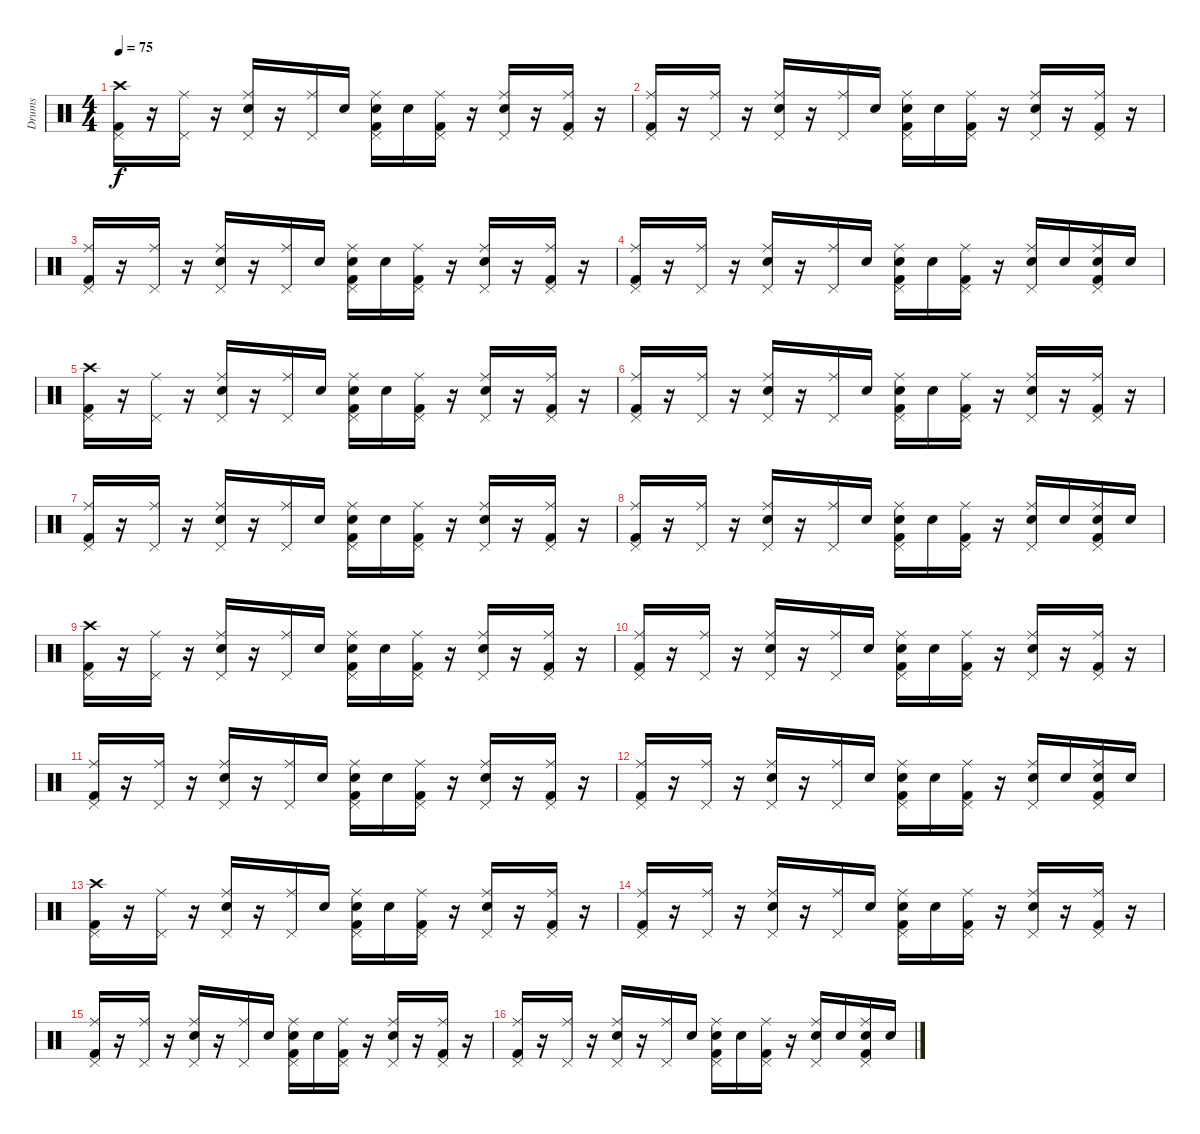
\track ("Drums" "Drums") {instrument percussion}
\staff {score}
\articulation defaults
\ts (4 4)
\tempo 75
\clef neutral
\ks c
("Crash high (hit)" "Kick (hit) 2" "Pedal Hi-Hat (hit)").16{dy f} r.16 ("Ride (middle)" "Pedal Hi-Hat (hit)").16 r.16 ("Ride (middle)" "Electric Snare (hit)" "Pedal Hi-Hat (hit)").16 r.16 ("Ride (middle)" "Pedal Hi-Hat (hit)").16 "Snare (hit) 2".16 ("Ride (middle)" "Electric Snare (hit)" "Kick (hit) 2" "Pedal Hi-Hat (hit)").16 "Electric Snare (hit)".16 ("Ride (middle)" "Kick (hit) 2" "Pedal Hi-Hat (hit)").16 r.16 ("Ride (middle)" "Electric Snare (hit)" "Pedal Hi-Hat (hit)").16 r.16 ("Ride (middle)" "Kick (hit) 2" "Pedal Hi-Hat (hit)").16 r.16 |
("Ride (middle)" "Kick (hit) 2" "Pedal Hi-Hat (hit)").16 r.16 ("Ride (middle)" "Pedal Hi-Hat (hit)").16 r.16 ("Ride (middle)" "Electric Snare (hit)" "Pedal Hi-Hat (hit)").16 r.16 ("Ride (middle)" "Pedal Hi-Hat (hit)").16 "Snare (hit) 2".16 ("Ride (middle)" "Electric Snare (hit)" "Kick (hit) 2" "Pedal Hi-Hat (hit)").16 "Electric Snare (hit)".16 ("Ride (middle)" "Kick (hit) 2" "Pedal Hi-Hat (hit)").16 r.16 ("Ride (middle)" "Electric Snare (hit)" "Pedal Hi-Hat (hit)").16 r.16 ("Ride (middle)" "Kick (hit) 2" "Pedal Hi-Hat (hit)").16 r.16 |
("Ride (middle)" "Kick (hit) 2" "Pedal Hi-Hat (hit)").16 r.16 ("Ride (middle)" "Pedal Hi-Hat (hit)").16 r.16 ("Ride (middle)" "Electric Snare (hit)" "Pedal Hi-Hat (hit)").16 r.16 ("Ride (middle)" "Pedal Hi-Hat (hit)").16 "Snare (hit) 2".16 ("Ride (middle)" "Electric Snare (hit)" "Kick (hit) 2" "Pedal Hi-Hat (hit)").16 "Electric Snare (hit)".16 ("Ride (middle)" "Kick (hit) 2" "Pedal Hi-Hat (hit)").16 r.16 ("Ride (middle)" "Electric Snare (hit)" "Pedal Hi-Hat (hit)").16 r.16 ("Ride (middle)" "Kick (hit) 2" "Pedal Hi-Hat (hit)").16 r.16 |
("Ride (middle)" "Kick (hit) 2" "Pedal Hi-Hat (hit)").16 r.16 ("Ride (middle)" "Pedal Hi-Hat (hit)").16 r.16 ("Ride (middle)" "Electric Snare (hit)" "Pedal Hi-Hat (hit)").16 r.16 ("Ride (middle)" "Pedal Hi-Hat (hit)").16 "Snare (hit) 2".16 ("Ride (middle)" "Electric Snare (hit)" "Kick (hit) 2" "Pedal Hi-Hat (hit)").16 "Electric Snare (hit)".16 ("Ride (middle)" "Kick (hit) 2" "Pedal Hi-Hat (hit)").16 r.16 ("Ride (middle)" "Electric Snare (hit)" "Pedal Hi-Hat (hit)").16 "Electric Snare (hit)".16 ("Ride (middle)" "Electric Snare (hit)" "Kick (hit) 2" "Pedal Hi-Hat (hit)").16 "Electric Snare (hit)".16 |
("Crash high (hit)" "Kick (hit) 2" "Pedal Hi-Hat (hit)").16 r.16 ("Ride (middle)" "Pedal Hi-Hat (hit)").16 r.16 ("Ride (middle)" "Electric Snare (hit)" "Pedal Hi-Hat (hit)").16 r.16 ("Ride (middle)" "Pedal Hi-Hat (hit)").16 "Snare (hit) 2".16 ("Ride (middle)" "Electric Snare (hit)" "Kick (hit) 2" "Pedal Hi-Hat (hit)").16 "Electric Snare (hit)".16 ("Ride (middle)" "Kick (hit) 2" "Pedal Hi-Hat (hit)").16 r.16 ("Ride (middle)" "Electric Snare (hit)" "Pedal Hi-Hat (hit)").16 r.16 ("Ride (middle)" "Kick (hit) 2" "Pedal Hi-Hat (hit)").16 r.16 |
("Ride (middle)" "Kick (hit) 2" "Pedal Hi-Hat (hit)").16 r.16 ("Ride (middle)" "Pedal Hi-Hat (hit)").16 r.16 ("Ride (middle)" "Electric Snare (hit)" "Pedal Hi-Hat (hit)").16 r.16 ("Ride (middle)" "Pedal Hi-Hat (hit)").16 "Snare (hit) 2".16 ("Ride (middle)" "Electric Snare (hit)" "Kick (hit) 2" "Pedal Hi-Hat (hit)").16 "Electric Snare (hit)".16 ("Ride (middle)" "Kick (hit) 2" "Pedal Hi-Hat (hit)").16 r.16 ("Ride (middle)" "Electric Snare (hit)" "Pedal Hi-Hat (hit)").16 r.16 ("Ride (middle)" "Kick (hit) 2" "Pedal Hi-Hat (hit)").16 r.16 |
("Ride (middle)" "Kick (hit) 2" "Pedal Hi-Hat (hit)").16 r.16 ("Ride (middle)" "Pedal Hi-Hat (hit)").16 r.16 ("Ride (middle)" "Electric Snare (hit)" "Pedal Hi-Hat (hit)").16 r.16 ("Ride (middle)" "Pedal Hi-Hat (hit)").16 "Snare (hit) 2".16 ("Ride (middle)" "Electric Snare (hit)" "Kick (hit) 2" "Pedal Hi-Hat (hit)").16 "Electric Snare (hit)".16 ("Ride (middle)" "Kick (hit) 2" "Pedal Hi-Hat (hit)").16 r.16 ("Ride (middle)" "Electric Snare (hit)" "Pedal Hi-Hat (hit)").16 r.16 ("Ride (middle)" "Kick (hit) 2" "Pedal Hi-Hat (hit)").16 r.16 |
("Ride (middle)" "Kick (hit) 2" "Pedal Hi-Hat (hit)").16 r.16 ("Ride (middle)" "Pedal Hi-Hat (hit)").16 r.16 ("Ride (middle)" "Electric Snare (hit)" "Pedal Hi-Hat (hit)").16 r.16 ("Ride (middle)" "Pedal Hi-Hat (hit)").16 "Snare (hit) 2".16 ("Ride (middle)" "Electric Snare (hit)" "Kick (hit) 2" "Pedal Hi-Hat (hit)").16 "Electric Snare (hit)".16 ("Ride (middle)" "Kick (hit) 2" "Pedal Hi-Hat (hit)").16 r.16 ("Ride (middle)" "Electric Snare (hit)" "Pedal Hi-Hat (hit)").16 "Electric Snare (hit)".16 ("Ride (middle)" "Electric Snare (hit)" "Kick (hit) 2" "Pedal Hi-Hat (hit)").16 "Electric Snare (hit)".16 |
("Crash high (hit)" "Kick (hit) 2" "Pedal Hi-Hat (hit)").16 r.16 ("Ride (middle)" "Pedal Hi-Hat (hit)").16 r.16 ("Ride (middle)" "Electric Snare (hit)" "Pedal Hi-Hat (hit)").16 r.16 ("Ride (middle)" "Pedal Hi-Hat (hit)").16 "Snare (hit) 2".16 ("Ride (middle)" "Electric Snare (hit)" "Kick (hit) 2" "Pedal Hi-Hat (hit)").16 "Electric Snare (hit)".16 ("Ride (middle)" "Kick (hit) 2" "Pedal Hi-Hat (hit)").16 r.16 ("Ride (middle)" "Electric Snare (hit)" "Pedal Hi-Hat (hit)").16 r.16 ("Ride (middle)" "Kick (hit) 2" "Pedal Hi-Hat (hit)").16 r.16 |
("Ride (middle)" "Kick (hit) 2" "Pedal Hi-Hat (hit)").16 r.16 ("Ride (middle)" "Pedal Hi-Hat (hit)").16 r.16 ("Ride (middle)" "Electric Snare (hit)" "Pedal Hi-Hat (hit)").16 r.16 ("Ride (middle)" "Pedal Hi-Hat (hit)").16 "Snare (hit) 2".16 ("Ride (middle)" "Electric Snare (hit)" "Kick (hit) 2" "Pedal Hi-Hat (hit)").16 "Electric Snare (hit)".16 ("Ride (middle)" "Kick (hit) 2" "Pedal Hi-Hat (hit)").16 r.16 ("Ride (middle)" "Electric Snare (hit)" "Pedal Hi-Hat (hit)").16 r.16 ("Ride (middle)" "Kick (hit) 2" "Pedal Hi-Hat (hit)").16 r.16 |
("Ride (middle)" "Kick (hit) 2" "Pedal Hi-Hat (hit)").16 r.16 ("Ride (middle)" "Pedal Hi-Hat (hit)").16 r.16 ("Ride (middle)" "Electric Snare (hit)" "Pedal Hi-Hat (hit)").16 r.16 ("Ride (middle)" "Pedal Hi-Hat (hit)").16 "Snare (hit) 2".16 ("Ride (middle)" "Electric Snare (hit)" "Kick (hit) 2" "Pedal Hi-Hat (hit)").16 "Electric Snare (hit)".16 ("Ride (middle)" "Kick (hit) 2" "Pedal Hi-Hat (hit)").16 r.16 ("Ride (middle)" "Electric Snare (hit)" "Pedal Hi-Hat (hit)").16 r.16 ("Ride (middle)" "Kick (hit) 2" "Pedal Hi-Hat (hit)").16 r.16 |
("Ride (middle)" "Kick (hit) 2" "Pedal Hi-Hat (hit)").16 r.16 ("Ride (middle)" "Pedal Hi-Hat (hit)").16 r.16 ("Ride (middle)" "Electric Snare (hit)" "Pedal Hi-Hat (hit)").16 r.16 ("Ride (middle)" "Pedal Hi-Hat (hit)").16 "Snare (hit) 2".16 ("Ride (middle)" "Electric Snare (hit)" "Kick (hit) 2" "Pedal Hi-Hat (hit)").16 "Electric Snare (hit)".16 ("Ride (middle)" "Kick (hit) 2" "Pedal Hi-Hat (hit)").16 r.16 ("Ride (middle)" "Electric Snare (hit)" "Pedal Hi-Hat (hit)").16 "Electric Snare (hit)".16 ("Ride (middle)" "Electric Snare (hit)" "Kick (hit) 2" "Pedal Hi-Hat (hit)").16 "Electric Snare (hit)".16 |
("Crash high (hit)" "Kick (hit) 2" "Pedal Hi-Hat (hit)").16 r.16 ("Ride (middle)" "Pedal Hi-Hat (hit)").16 r.16 ("Ride (middle)" "Electric Snare (hit)" "Pedal Hi-Hat (hit)").16 r.16 ("Ride (middle)" "Pedal Hi-Hat (hit)").16 "Snare (hit) 2".16 ("Ride (middle)" "Electric Snare (hit)" "Kick (hit) 2" "Pedal Hi-Hat (hit)").16 "Electric Snare (hit)".16 ("Ride (middle)" "Kick (hit) 2" "Pedal Hi-Hat (hit)").16 r.16 ("Ride (middle)" "Electric Snare (hit)" "Pedal Hi-Hat (hit)").16 r.16 ("Ride (middle)" "Kick (hit) 2" "Pedal Hi-Hat (hit)").16 r.16 |
("Ride (middle)" "Kick (hit) 2" "Pedal Hi-Hat (hit)").16 r.16 ("Ride (middle)" "Pedal Hi-Hat (hit)").16 r.16 ("Ride (middle)" "Electric Snare (hit)" "Pedal Hi-Hat (hit)").16 r.16 ("Ride (middle)" "Pedal Hi-Hat (hit)").16 "Snare (hit) 2".16 ("Ride (middle)" "Electric Snare (hit)" "Kick (hit) 2" "Pedal Hi-Hat (hit)").16 "Electric Snare (hit)".16 ("Ride (middle)" "Kick (hit) 2" "Pedal Hi-Hat (hit)").16 r.16 ("Ride (middle)" "Electric Snare (hit)" "Pedal Hi-Hat (hit)").16 r.16 ("Ride (middle)" "Kick (hit) 2" "Pedal Hi-Hat (hit)").16 r.16 |
("Ride (middle)" "Kick (hit) 2" "Pedal Hi-Hat (hit)").16 r.16 ("Ride (middle)" "Pedal Hi-Hat (hit)").16 r.16 ("Ride (middle)" "Electric Snare (hit)" "Pedal Hi-Hat (hit)").16 r.16 ("Ride (middle)" "Pedal Hi-Hat (hit)").16 "Snare (hit) 2".16 ("Ride (middle)" "Electric Snare (hit)" "Kick (hit) 2" "Pedal Hi-Hat (hit)").16 "Electric Snare (hit)".16 ("Ride (middle)" "Kick (hit) 2" "Pedal Hi-Hat (hit)").16 r.16 ("Ride (middle)" "Electric Snare (hit)" "Pedal Hi-Hat (hit)").16 r.16 ("Ride (middle)" "Kick (hit) 2" "Pedal Hi-Hat (hit)").16 r.16 |
("Ride (middle)" "Kick (hit) 2" "Pedal Hi-Hat (hit)").16 r.16 ("Ride (middle)" "Pedal Hi-Hat (hit)").16 r.16 ("Ride (middle)" "Electric Snare (hit)" "Pedal Hi-Hat (hit)").16 r.16 ("Ride (middle)" "Pedal Hi-Hat (hit)").16 "Snare (hit) 2".16 ("Ride (middle)" "Electric Snare (hit)" "Kick (hit) 2" "Pedal Hi-Hat (hit)").16 "Electric Snare (hit)".16 ("Ride (middle)" "Kick (hit) 2" "Pedal Hi-Hat (hit)").16 r.16 ("Ride (middle)" "Electric Snare (hit)" "Pedal Hi-Hat (hit)").16 "Electric Snare (hit)".16 ("Ride (middle)" "Electric Snare (hit)" "Kick (hit) 2" "Pedal Hi-Hat (hit)").16 "Electric Snare (hit)".16
